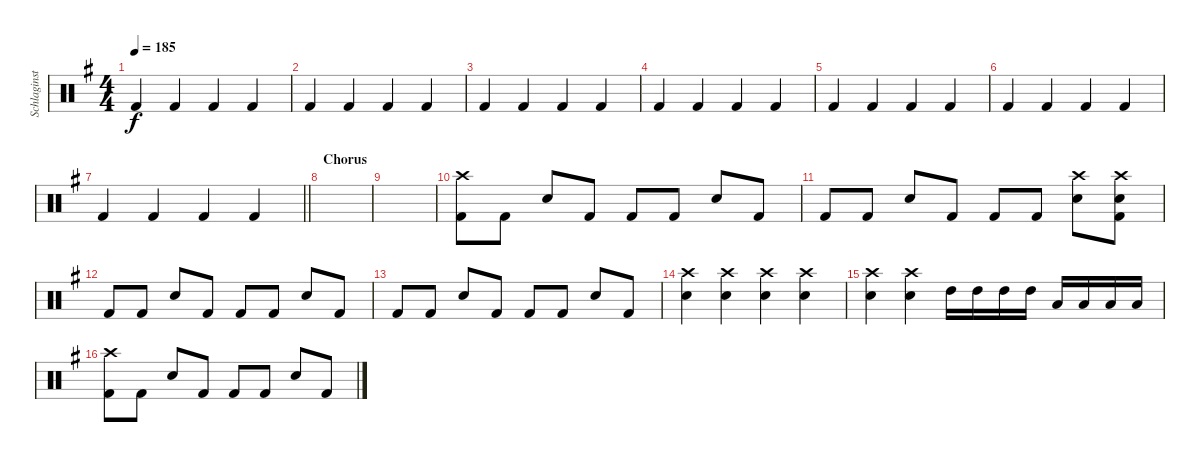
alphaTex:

\track ("Schlaginstrumente - Auswahl" "Schlaginst") {instrument percussion}
\staff {score}
\articulation defaults
\ts (4 4)
\tempo 185
\clef neutral
\ks eminor "Kick (hit) 2".4{dy f} "Kick (hit) 2".4 "Kick (hit) 2".4 "Kick (hit) 2".4
|
"Kick (hit) 2".4 "Kick (hit) 2".4 "Kick (hit) 2".4 "Kick (hit) 2".4 |
"Kick (hit) 2".4 "Kick (hit) 2".4 "Kick (hit) 2".4 "Kick (hit) 2".4 |
"Kick (hit) 2".4 "Kick (hit) 2".4 "Kick (hit) 2".4 "Kick (hit) 2".4 |
"Kick (hit) 2".4 "Kick (hit) 2".4 "Kick (hit) 2".4 "Kick (hit) 2".4 |
"Kick (hit) 2".4 "Kick (hit) 2".4 "Kick (hit) 2".4 "Kick (hit) 2".4 |
\barLineRight lightlight "Kick (hit) 2".4 "Kick (hit) 2".4 "Kick (hit) 2".4 "Kick (hit) 2".4
|
\section ("" "Chorus")
|
|
("Crash high (hit)" "Kick (hit) 2").8 "Kick (hit) 2".8 "Snare (hit) 2".8 "Kick (hit) 2".8 "Kick (hit) 2".8 "Kick (hit) 2".8 "Snare (hit) 2".8 "Kick (hit) 2".8 |
"Kick (hit) 2".8 "Kick (hit) 2".8 "Snare (hit) 2".8 "Kick (hit) 2".8 "Kick (hit) 2".8 "Kick (hit) 2".8 ("Crash high (hit)" "Snare (hit) 2").8 ("Crash high (hit)" "Snare (hit) 2" "Kick (hit) 2").8 |
"Kick (hit) 2".8 "Kick (hit) 2".8 "Snare (hit) 2".8 "Kick (hit) 2".8 "Kick (hit) 2".8 "Kick (hit) 2".8 "Snare (hit) 2".8 "Kick (hit) 2".8 |
"Kick (hit) 2".8 "Kick (hit) 2".8 "Snare (hit) 2".8 "Kick (hit) 2".8 "Kick (hit) 2".8 "Kick (hit) 2".8 "Snare (hit) 2".8 "Kick (hit) 2".8 |
("Crash high (hit)" "Snare (hit) 2").4 ("Crash high (hit)" "Snare (hit) 2").4 ("Crash high (hit)" "Snare (hit) 2").4 ("Crash high (hit)" "Snare (hit) 2").4 |
("Crash high (hit)" "Snare (hit) 2").4 ("Crash high (hit)" "Snare (hit) 2").4 "High Tom (hit)".16 "High Tom (hit)".16 "High Tom (hit)".16 "High Tom (hit)".16 "Low Tom (hit)".16 "Low Tom (hit)".16 "Low Tom (hit)".16 "Low Tom (hit)".16 |
("Crash high (hit)" "Kick (hit) 2").8 "Kick (hit) 2".8 "Snare (hit) 2".8 "Kick (hit) 2".8 "Kick (hit) 2".8 "Kick (hit) 2".8 "Snare (hit) 2".8 "Kick (hit) 2".8
